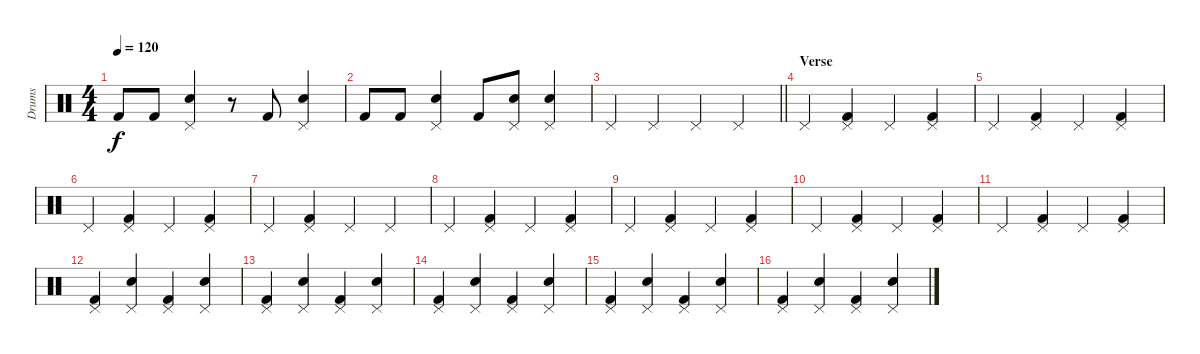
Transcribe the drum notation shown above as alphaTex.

\track ("Drums" "Drums") {instrument percussion}
\staff {score}
\articulation defaults
\ts (4 4)
\tempo 120
\clef neutral
\ks c "Kick (hit) 2".8{dy f} "Kick (hit) 2".8
("Snare (hit) 2" "Pedal Hi-Hat (hit)").4 r.8 "Kick (hit) 2".8 ("Snare (hit) 2" "Pedal Hi-Hat (hit)").4 |
"Kick (hit) 2".8 "Kick (hit) 2".8 ("Snare (hit) 2" "Pedal Hi-Hat (hit)").4 "Kick (hit) 2".8 ("Snare (hit) 2" "Pedal Hi-Hat (hit)").8 ("Snare (hit) 2" "Pedal Hi-Hat (hit)").4 |
\barLineRight lightlight "Pedal Hi-Hat (hit)".4 "Pedal Hi-Hat (hit)".4 "Pedal Hi-Hat (hit)".4 "Pedal Hi-Hat (hit)".4
|
\section ("" "Verse")
"Pedal Hi-Hat (hit)".4 ("Pedal Hi-Hat (hit)" "Kick (hit) 2").4 "Pedal Hi-Hat (hit)".4 ("Pedal Hi-Hat (hit)" "Kick (hit) 2").4 |
"Pedal Hi-Hat (hit)".4 ("Pedal Hi-Hat (hit)" "Kick (hit) 2").4 "Pedal Hi-Hat (hit)".4 ("Pedal Hi-Hat (hit)" "Kick (hit) 2").4 |
"Pedal Hi-Hat (hit)".4 ("Pedal Hi-Hat (hit)" "Kick (hit) 2").4 "Pedal Hi-Hat (hit)".4 ("Pedal Hi-Hat (hit)" "Kick (hit) 2").4 |
"Pedal Hi-Hat (hit)".4 ("Pedal Hi-Hat (hit)" "Kick (hit) 2").4 "Pedal Hi-Hat (hit)".4 "Pedal Hi-Hat (hit)".4 |
"Pedal Hi-Hat (hit)".4 ("Pedal Hi-Hat (hit)" "Kick (hit) 2").4 "Pedal Hi-Hat (hit)".4 ("Pedal Hi-Hat (hit)" "Kick (hit) 2").4 |
"Pedal Hi-Hat (hit)".4 ("Pedal Hi-Hat (hit)" "Kick (hit) 2").4 "Pedal Hi-Hat (hit)".4 ("Pedal Hi-Hat (hit)" "Kick (hit) 2").4 |
"Pedal Hi-Hat (hit)".4 ("Pedal Hi-Hat (hit)" "Kick (hit) 2").4 "Pedal Hi-Hat (hit)".4 ("Pedal Hi-Hat (hit)" "Kick (hit) 2").4 |
"Pedal Hi-Hat (hit)".4 ("Pedal Hi-Hat (hit)" "Kick (hit) 2").4 "Pedal Hi-Hat (hit)".4 ("Pedal Hi-Hat (hit)" "Kick (hit) 2").4 |
("Pedal Hi-Hat (hit)" "Kick (hit) 2").4 ("Snare (hit) 2" "Pedal Hi-Hat (hit)").4 ("Pedal Hi-Hat (hit)" "Kick (hit) 2").4 ("Snare (hit) 2" "Pedal Hi-Hat (hit)").4 |
("Pedal Hi-Hat (hit)" "Kick (hit) 2").4 ("Snare (hit) 2" "Pedal Hi-Hat (hit)").4 ("Pedal Hi-Hat (hit)" "Kick (hit) 2").4 ("Snare (hit) 2" "Pedal Hi-Hat (hit)").4 |
("Pedal Hi-Hat (hit)" "Kick (hit) 2").4 ("Snare (hit) 2" "Pedal Hi-Hat (hit)").4 ("Pedal Hi-Hat (hit)" "Kick (hit) 2").4 ("Snare (hit) 2" "Pedal Hi-Hat (hit)").4 |
("Pedal Hi-Hat (hit)" "Kick (hit) 2").4 ("Snare (hit) 2" "Pedal Hi-Hat (hit)").4 ("Pedal Hi-Hat (hit)" "Kick (hit) 2").4 ("Snare (hit) 2" "Pedal Hi-Hat (hit)").4 |
("Pedal Hi-Hat (hit)" "Kick (hit) 2").4 ("Snare (hit) 2" "Pedal Hi-Hat (hit)").4 ("Pedal Hi-Hat (hit)" "Kick (hit) 2").4 ("Snare (hit) 2" "Pedal Hi-Hat (hit)").4
